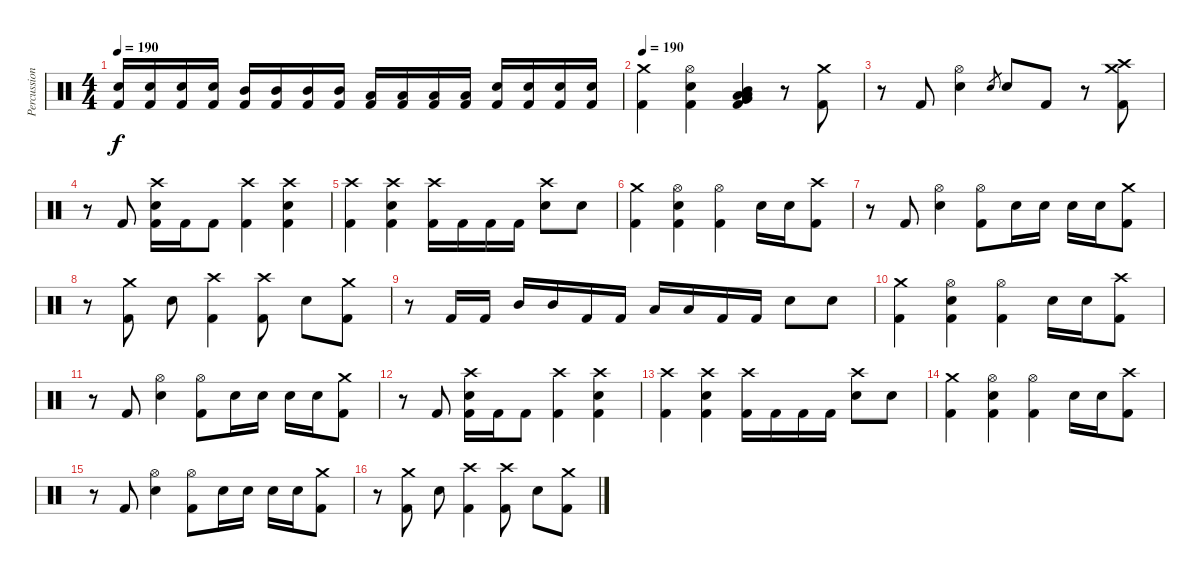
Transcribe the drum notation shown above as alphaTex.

\track ("Percussion" "Percussion") {instrument percussion}
\staff {score}
\articulation defaults
\ts (4 4)
\tempo 190
\clef neutral
\ks c
("Electric Snare (hit)" "Kick (hit) 2").16{dy f} ("Electric Snare (hit)" "Kick (hit) 2").16 ("Electric Snare (hit)" "Kick (hit) 2").16 ("Electric Snare (hit)" "Kick (hit) 2").16 ("Mid Tom (hit)" "Kick (hit) 2").16 ("Mid Tom (hit)" "Kick (hit) 2").16 ("Mid Tom (hit)" "Kick (hit) 2").16 ("Mid Tom (hit)" "Kick (hit) 2").16 ("Low Tom (hit)" "Kick (hit) 2").16 ("Low Tom (hit)" "Kick (hit) 2").16 ("Low Tom (hit)" "Kick (hit) 2").16 ("Low Tom (hit)" "Kick (hit) 2").16 ("Electric Snare (hit)" "Kick (hit) 2").16 ("Electric Snare (hit)" "Kick (hit) 2").16 ("Electric Snare (hit)" "Kick (hit) 2").16 ("Electric Snare (hit)" "Kick (hit) 2").16 |
\tempo 190
("Crash medium (hit)" "Kick (hit) 2").4 ("Hi-Hat (open)" "Electric Snare (hit)" "Kick (hit) 2").4 ("Mid Tom (hit)" "Low Tom (hit)" "Very Low Tom (hit)" "Low Floor Tom (hit)" "Kick (hit) 2").4 r.8 ("Crash medium (hit)" "Kick (hit) 2").8 |
r.8 "Kick (hit) 2".8 ("Hi-Hat (open)" "Electric Snare (hit)").4 "Electric Snare (hit)".8{gr} "Electric Snare (hit)".8 "Kick (hit) 2".8 r.8 ("Crash medium (hit)" "Crash high (hit)" "Kick (hit) 2").8 |
r.8 "Kick (hit) 2".8 ("Crash high (hit)" "Electric Snare (hit)" "Kick (hit) 2").16 "Kick (hit) 2".16 "Kick (hit) 2".8 ("Crash high (hit)" "Kick (hit) 2").4 ("Crash high (hit)" "Electric Snare (hit)" "Kick (hit) 2").4 |
("Crash high (hit)" "Kick (hit) 2").4 ("Crash high (hit)" "Electric Snare (hit)" "Kick (hit) 2").4 ("Crash high (hit)" "Kick (hit) 2").16 "Kick (hit) 2".16 "Kick (hit) 2".16 "Kick (hit) 2".16 ("Crash high (hit)" "Electric Snare (hit)").8 "Electric Snare (hit)".8 |
("Crash medium (hit)" "Kick (hit) 2").4 ("Hi-Hat (open)" "Electric Snare (hit)" "Kick (hit) 2").4 ("Hi-Hat (open)" "Kick (hit) 2").4 "Electric Snare (hit)".16 "Electric Snare (hit)".16 ("Crash high (hit)" "Kick (hit) 2").8 |
r.8 "Kick (hit) 2".8 ("Hi-Hat (open)" "Electric Snare (hit)").4 ("Hi-Hat (open)" "Kick (hit) 2").8 "Electric Snare (hit)".16 "Electric Snare (hit)".16 "Electric Snare (hit)".16 "Electric Snare (hit)".16 ("Crash medium (hit)" "Kick (hit) 2").8 |
r.8 ("Crash medium (hit)" "Kick (hit) 2").8 "Electric Snare (hit)".8 ("Crash high (hit)" "Kick (hit) 2").4 ("Crash high (hit)" "Kick (hit) 2").8 "Electric Snare (hit)".8 ("Crash medium (hit)" "Kick (hit) 2").8 |
r.8 "Kick (hit) 2".16 "Kick (hit) 2".16 "Mid Tom (hit)".16 "Mid Tom (hit)".16 "Kick (hit) 2".16 "Kick (hit) 2".16 "Low Tom (hit)".16 "Low Tom (hit)".16 "Kick (hit) 2".16 "Kick (hit) 2".16 "Electric Snare (hit)".8 "Electric Snare (hit)".8 |
("Crash medium (hit)" "Kick (hit) 2").4 ("Hi-Hat (open)" "Electric Snare (hit)" "Kick (hit) 2").4 ("Hi-Hat (open)" "Kick (hit) 2").4 "Electric Snare (hit)".16 "Electric Snare (hit)".16 ("Crash high (hit)" "Kick (hit) 2").8 |
r.8 "Kick (hit) 2".8 ("Hi-Hat (open)" "Electric Snare (hit)").4 ("Hi-Hat (open)" "Kick (hit) 2").8 "Electric Snare (hit)".16 "Electric Snare (hit)".16 "Electric Snare (hit)".16 "Electric Snare (hit)".16 ("Crash medium (hit)" "Kick (hit) 2").8 |
r.8 "Kick (hit) 2".8 ("Crash high (hit)" "Electric Snare (hit)" "Kick (hit) 2").16 "Kick (hit) 2".16 "Kick (hit) 2".8 ("Crash high (hit)" "Kick (hit) 2").4 ("Crash high (hit)" "Electric Snare (hit)" "Kick (hit) 2").4 |
("Crash high (hit)" "Kick (hit) 2").4 ("Crash high (hit)" "Electric Snare (hit)" "Kick (hit) 2").4 ("Crash high (hit)" "Kick (hit) 2").16 "Kick (hit) 2".16 "Kick (hit) 2".16 "Kick (hit) 2".16 ("Crash high (hit)" "Electric Snare (hit)").8 "Electric Snare (hit)".8 |
("Crash medium (hit)" "Kick (hit) 2").4 ("Hi-Hat (open)" "Electric Snare (hit)" "Kick (hit) 2").4 ("Hi-Hat (open)" "Kick (hit) 2").4 "Electric Snare (hit)".16 "Electric Snare (hit)".16 ("Crash high (hit)" "Kick (hit) 2").8 |
r.8 "Kick (hit) 2".8 ("Hi-Hat (open)" "Electric Snare (hit)").4 ("Hi-Hat (open)" "Kick (hit) 2").8 "Electric Snare (hit)".16 "Electric Snare (hit)".16 "Electric Snare (hit)".16 "Electric Snare (hit)".16 ("Crash medium (hit)" "Kick (hit) 2").8 |
r.8 ("Crash medium (hit)" "Kick (hit) 2").8 "Electric Snare (hit)".8 ("Crash high (hit)" "Kick (hit) 2").4 ("Crash high (hit)" "Kick (hit) 2").8 "Electric Snare (hit)".8 ("Crash medium (hit)" "Kick (hit) 2").8
